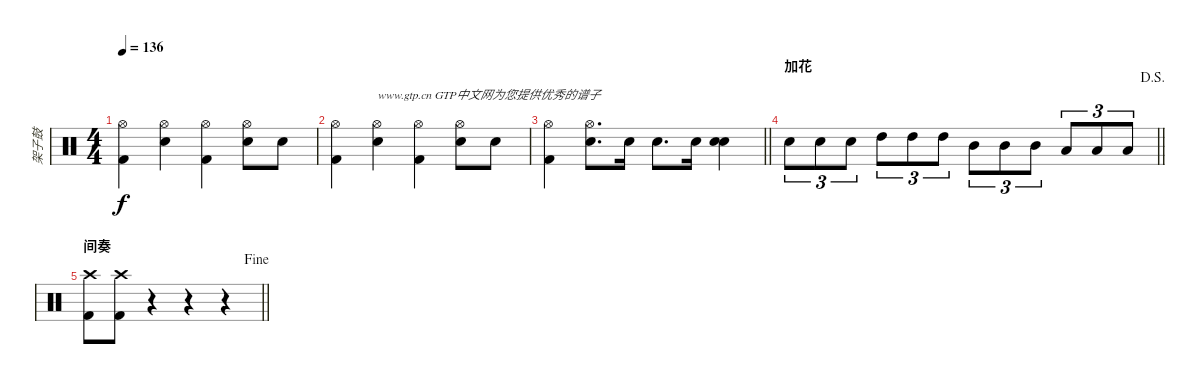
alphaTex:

\track ("架子鼓" "架子鼓") {instrument percussion}
\staff {score}
\articulation defaults
\ts (4 4)
\tempo 136
\clef neutral
\ks c
("Hi-Hat (open)" "Kick (hit) 2").4{dy f} ("Hi-Hat (open)" "Electric Snare (hit)").4 ("Hi-Hat (open)" "Kick (hit) 2").4 ("Hi-Hat (open)" "Electric Snare (hit)").8 "Electric Snare (hit)".8 |
("Hi-Hat (open)" "Kick (hit) 2").4 ("Hi-Hat (open)" "Electric Snare (hit)").4{txt "www.gtp.cn GTP中文网为您提供优秀的谱子"} ("Hi-Hat (open)" "Kick (hit) 2").4 ("Hi-Hat (open)" "Electric Snare (hit)").8 "Electric Snare (hit)".8 |
\barLineRight lightlight
("Hi-Hat (open)" "Kick (hit) 2").4 ("Hi-Hat (open)" "Electric Snare (hit)").8{d} "Electric Snare (hit)".16 "Electric Snare (hit)".8{d} "Electric Snare (hit)".16 ("Electric Snare (hit)" "Electric Snare (hit)").4 |
\section ("" "加花")
\jump dalsegno
\barLineRight lightlight "Electric Snare (hit)".8{tu (3 2)} "Electric Snare (hit)".8{tu (3 2)} "Electric Snare (hit)".8{tu (3 2)} "High Tom (hit)".8{tu (3 2)} "High Tom (hit)".8{tu (3 2)} "High Tom (hit)".8{tu (3 2)} "Mid Tom (hit)".8{tu (3 2)} "Mid Tom (hit)".8{tu (3 2)} "Mid Tom (hit)".8{tu (3 2)} "Low Tom (hit)".8{tu (3 2)} "Low Tom (hit)".8{tu (3 2)} "Low Tom (hit)".8{tu (3 2)}
|
\section ("" "间奏")
\jump fine
\barLineRight lightlight
("Crash high (hit)" "Kick (hit) 2").8 ("Crash high (hit)" "Kick (hit) 2").8 r.4 r.4 r.4
